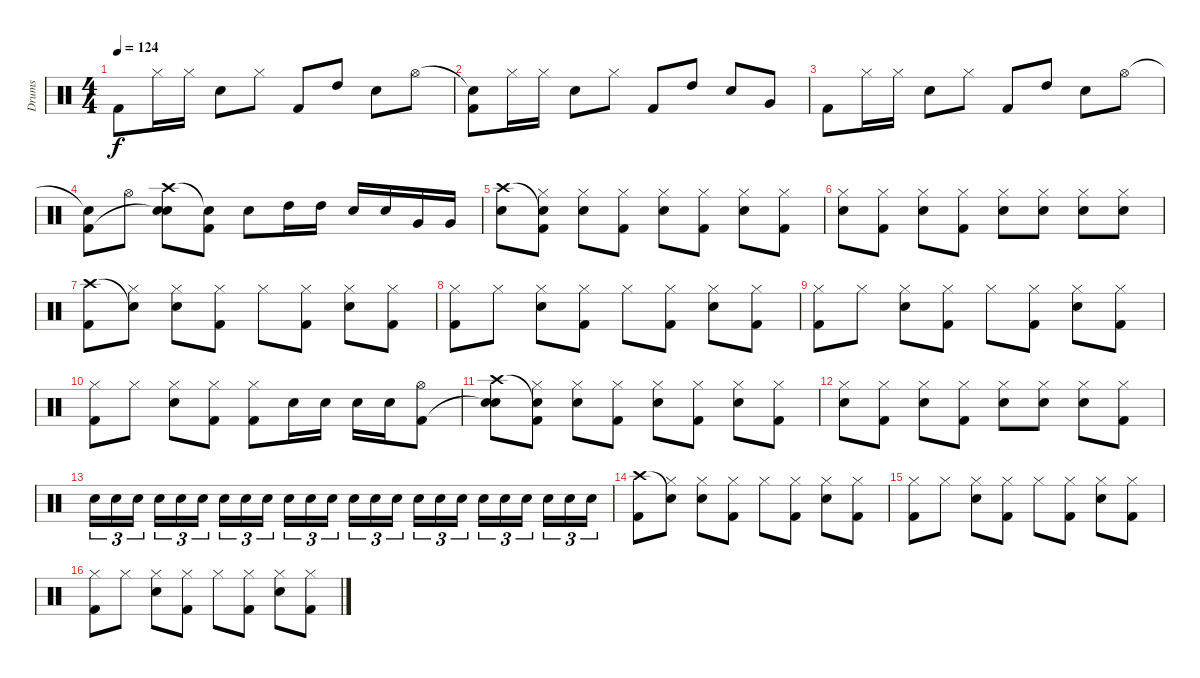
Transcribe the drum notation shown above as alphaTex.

\track ("Drums" "Drums") {instrument percussion}
\staff {score}
\articulation defaults
\ts (4 4)
\tempo 124
\clef neutral
\ks c "Kick (hit) 2".8{dy f} "Hi-Hat (closed)".16 "Hi-Hat (closed)".16 "Snare (hit) 2".8 "Hi-Hat (closed)".8 "Kick (hit) 2".8 "High Tom (hit)".8 "Snare (hit) 2".8 "Hi-Hat (open)".8
|
("Snare (hit)"{t} "Kick (hit) 2").8 "Hi-Hat (closed)".16 "Hi-Hat (closed)".16 "Snare (hit) 2".8 "Hi-Hat (closed)".8 "Kick (hit) 2".8 "High Tom (hit)".8 "Snare (hit) 2".8 "Very Low Tom (hit)".8 |
"Kick (hit) 2".8 "Hi-Hat (closed)".16 "Hi-Hat (closed)".16 "Snare (hit) 2".8 "Hi-Hat (closed)".8 "Kick (hit) 2".8 "High Tom (hit)".8 "Snare (hit) 2".8 "Hi-Hat (open)".8 |
("Snare (hit)"{t} "Kick (hit) 2").8 "Hi-Hat (open)".8 ("Crash high (hit)" "Snare (hit)"{t} "Snare (hit) 2").8 ("Snare (hit)"{t} "Kick (hit) 2").8 "Snare (hit) 2".8 "High Tom (hit)".16 "High Tom (hit)".16 "Snare (hit) 2".16 "Snare (hit) 2".16 "Very Low Tom (hit)".16 "Very Low Tom (hit)".16 |
("Crash high (hit)" "Snare (hit) 2").8 ("Snare (hit)"{t} "Hi-Hat (closed)" "Kick (hit) 2").8 ("Hi-Hat (closed)" "Snare (hit) 2").8 ("Hi-Hat (closed)" "Kick (hit) 2").8 ("Hi-Hat (closed)" "Snare (hit) 2").8 ("Hi-Hat (closed)" "Kick (hit) 2").8 ("Hi-Hat (closed)" "Snare (hit) 2").8 ("Hi-Hat (closed)" "Kick (hit) 2").8 |
("Hi-Hat (closed)" "Snare (hit) 2").8 ("Hi-Hat (closed)" "Kick (hit) 2").8 ("Hi-Hat (closed)" "Snare (hit) 2").8 ("Hi-Hat (closed)" "Kick (hit) 2").8 ("Hi-Hat (closed)" "Snare (hit) 2").8 ("Hi-Hat (closed)" "Snare (hit) 2").8 ("Hi-Hat (closed)" "Snare (hit) 2").8 ("Hi-Hat (closed)" "Snare (hit) 2").8 |
("Crash high (hit)" "Kick (hit) 2").8 ("Snare (hit)"{t} "Hi-Hat (closed)").8 ("Hi-Hat (closed)" "Snare (hit) 2").8 ("Hi-Hat (closed)" "Kick (hit) 2").8 "Hi-Hat (closed)".8 ("Hi-Hat (closed)" "Kick (hit) 2").8 ("Hi-Hat (closed)" "Snare (hit) 2").8 ("Hi-Hat (closed)" "Kick (hit) 2").8 |
("Hi-Hat (closed)" "Kick (hit) 2").8 "Hi-Hat (closed)".8 ("Hi-Hat (closed)" "Snare (hit) 2").8 ("Hi-Hat (closed)" "Kick (hit) 2").8 "Hi-Hat (closed)".8 ("Hi-Hat (closed)" "Kick (hit) 2").8 ("Hi-Hat (closed)" "Snare (hit) 2").8 ("Hi-Hat (closed)" "Kick (hit) 2").8 |
("Hi-Hat (closed)" "Kick (hit) 2").8 "Hi-Hat (closed)".8 ("Hi-Hat (closed)" "Snare (hit) 2").8 ("Hi-Hat (closed)" "Kick (hit) 2").8 "Hi-Hat (closed)".8 ("Hi-Hat (closed)" "Kick (hit) 2").8 ("Hi-Hat (closed)" "Snare (hit) 2").8 ("Hi-Hat (closed)" "Kick (hit) 2").8 |
("Hi-Hat (closed)" "Kick (hit) 2").8 "Hi-Hat (closed)".8 ("Hi-Hat (closed)" "Snare (hit) 2").8 ("Hi-Hat (closed)" "Kick (hit) 2").8 ("Hi-Hat (closed)" "Kick (hit) 2").8 "Snare (hit) 2".16 "Snare (hit) 2".16 "Snare (hit) 2".16 "Snare (hit) 2".16 ("Hi-Hat (open)" "Kick (hit) 2").8 |
("Crash high (hit)" "Snare (hit)"{t} "Snare (hit) 2").8 ("Snare (hit)"{t} "Hi-Hat (closed)" "Kick (hit) 2").8 ("Hi-Hat (closed)" "Snare (hit) 2").8 ("Hi-Hat (closed)" "Kick (hit) 2").8 ("Hi-Hat (closed)" "Snare (hit) 2").8 ("Hi-Hat (closed)" "Kick (hit) 2").8 ("Hi-Hat (closed)" "Snare (hit) 2").8 ("Hi-Hat (closed)" "Kick (hit) 2").8 |
("Hi-Hat (closed)" "Snare (hit) 2").8 ("Hi-Hat (closed)" "Kick (hit) 2").8 ("Hi-Hat (closed)" "Snare (hit) 2").8 ("Hi-Hat (closed)" "Kick (hit) 2").8 ("Hi-Hat (closed)" "Snare (hit) 2").8 ("Hi-Hat (closed)" "Snare (hit) 2").8 ("Hi-Hat (closed)" "Snare (hit) 2").8 ("Hi-Hat (closed)" "Kick (hit) 2").8 |
"Snare (hit) 2".16{tu (3 2)} "Snare (hit) 2".16{tu (3 2)} "Snare (hit) 2".16{tu (3 2)} "Snare (hit) 2".16{tu (3 2)} "Snare (hit) 2".16{tu (3 2)} "Snare (hit) 2".16{tu (3 2)} "Snare (hit) 2".16{tu (3 2)} "Snare (hit) 2".16{tu (3 2)} "Snare (hit) 2".16{tu (3 2)} "Snare (hit) 2".16{tu (3 2)} "Snare (hit) 2".16{tu (3 2)} "Snare (hit) 2".16{tu (3 2)} "Snare (hit) 2".16{tu (3 2)} "Snare (hit) 2".16{tu (3 2)} "Snare (hit) 2".16{tu (3 2)} "Snare (hit) 2".16{tu (3 2)} "Snare (hit) 2".16{tu (3 2)} "Snare (hit) 2".16{tu (3 2)} "Snare (hit) 2".16{tu (3 2)} "Snare (hit) 2".16{tu (3 2)} "Snare (hit) 2".16{tu (3 2)} "Snare (hit) 2".16{tu (3 2)} "Snare (hit) 2".16{tu (3 2)} "Snare (hit) 2".16{tu (3 2)} |
("Crash high (hit)" "Kick (hit) 2").8 ("Snare (hit)"{t} "Hi-Hat (closed)").8 ("Hi-Hat (closed)" "Snare (hit) 2").8 ("Hi-Hat (closed)" "Kick (hit) 2").8 "Hi-Hat (closed)".8 ("Hi-Hat (closed)" "Kick (hit) 2").8 ("Hi-Hat (closed)" "Snare (hit) 2").8 ("Hi-Hat (closed)" "Kick (hit) 2").8 |
("Hi-Hat (closed)" "Kick (hit) 2").8 "Hi-Hat (closed)".8 ("Hi-Hat (closed)" "Snare (hit) 2").8 ("Hi-Hat (closed)" "Kick (hit) 2").8 "Hi-Hat (closed)".8 ("Hi-Hat (closed)" "Kick (hit) 2").8 ("Hi-Hat (closed)" "Snare (hit) 2").8 ("Hi-Hat (closed)" "Kick (hit) 2").8 |
("Hi-Hat (closed)" "Kick (hit) 2").8 "Hi-Hat (closed)".8 ("Hi-Hat (closed)" "Snare (hit) 2").8 ("Hi-Hat (closed)" "Kick (hit) 2").8 "Hi-Hat (closed)".8 ("Hi-Hat (closed)" "Kick (hit) 2").8 ("Hi-Hat (closed)" "Snare (hit) 2").8 ("Hi-Hat (closed)" "Kick (hit) 2").8
